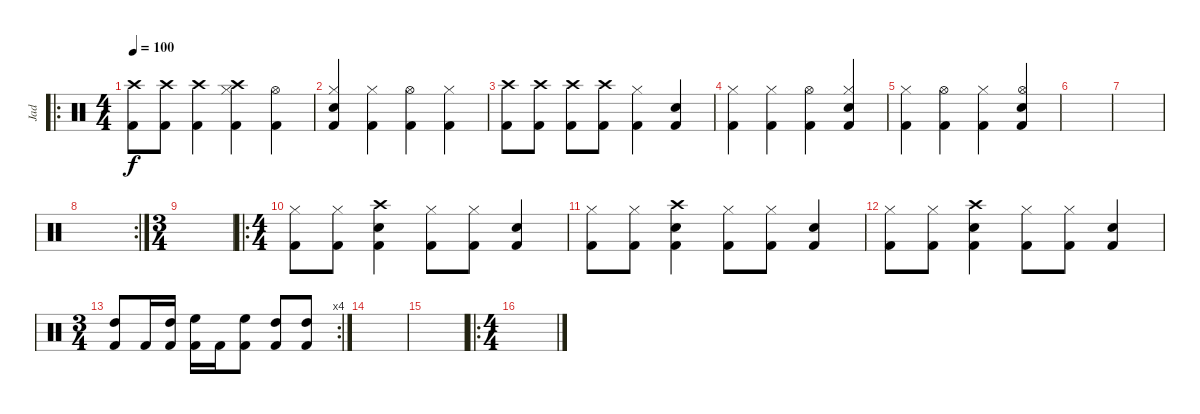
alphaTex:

\track ("Jad" "Jad") {mute instrument percussion}
\staff {score}
\articulation defaults
\ro
\ts (4 4)
\tempo 100
\clef neutral
\ks c
("Crash high (hit)" "Kick (hit) 2").8{dy f} ("Crash high (hit)" "Kick (hit) 2").8 ("Crash high (hit)" "Kick (hit) 2").4 ("Hi-Hat (closed)" "Crash high (hit)" "Kick (hit) 2").4 ("Hi-Hat (open)" "Kick (hit) 2").4 |
("Hi-Hat (closed)" "Snare (hit) 2" "Kick (hit) 2").4 ("Hi-Hat (closed)" "Kick (hit) 2").4 ("Hi-Hat (open)" "Kick (hit) 2").4 ("Hi-Hat (closed)" "Kick (hit) 2").4 |
("Crash high (hit)" "Kick (hit) 2").8 ("Crash high (hit)" "Kick (hit) 2").8 ("Crash high (hit)" "Kick (hit) 2").8 ("Crash high (hit)" "Kick (hit) 2").8 ("Hi-Hat (closed)" "Kick (hit) 2").4 ("Snare (hit) 2" "Kick (hit) 2").4 |
("Hi-Hat (closed)" "Kick (hit) 2").4 ("Hi-Hat (closed)" "Kick (hit) 2").4 ("Hi-Hat (open)" "Kick (hit) 2").4 ("Hi-Hat (closed)" "Snare (hit) 2" "Kick (hit) 2").4 |
("Hi-Hat (closed)" "Kick (hit) 2").4 ("Hi-Hat (open)" "Kick (hit) 2").4 ("Hi-Hat (closed)" "Kick (hit) 2").4 ("Hi-Hat (open)" "Snare (hit) 2" "Kick (hit) 2").4 |
|
|
\rc 2
|
\ts (3 4)
|
\ro
\ts (4 4)
("Hi-Hat (closed)" "Kick (hit) 2").8 ("Hi-Hat (closed)" "Kick (hit) 2").8 ("Crash high (hit)" "Snare (hit) 2" "Kick (hit) 2").4 ("Hi-Hat (closed)" "Kick (hit) 2").8 ("Hi-Hat (closed)" "Kick (hit) 2").8 ("Snare (hit) 2" "Kick (hit) 2").4 |
("Hi-Hat (closed)" "Kick (hit) 2").8 ("Hi-Hat (closed)" "Kick (hit) 2").8 ("Crash high (hit)" "Snare (hit) 2" "Kick (hit) 2").4 ("Hi-Hat (closed)" "Kick (hit) 2").8 ("Hi-Hat (closed)" "Kick (hit) 2").8 ("Snare (hit) 2" "Kick (hit) 2").4 |
("Hi-Hat (closed)" "Kick (hit) 2").8 ("Hi-Hat (closed)" "Kick (hit) 2").8 ("Crash high (hit)" "Snare (hit) 2" "Kick (hit) 2").4 ("Hi-Hat (closed)" "Kick (hit) 2").8 ("Hi-Hat (closed)" "Kick (hit) 2").8 ("Snare (hit) 2" "Kick (hit) 2").4 |
\rc 4
\ts (3 4)
("High Tom (hit)" "Kick (hit) 2").8 "Kick (hit) 2".16 ("High Tom (hit)" "Kick (hit) 2").16 ("High Floor Tom (hit)" "Kick (hit) 2").16 "Kick (hit) 2".16 ("High Floor Tom (hit)" "Kick (hit) 2").8 ("High Tom (hit)" "Kick (hit) 2").8 ("High Tom (hit)" "Kick (hit) 2").8 |
|
|
\ro
\ts (4 4)
